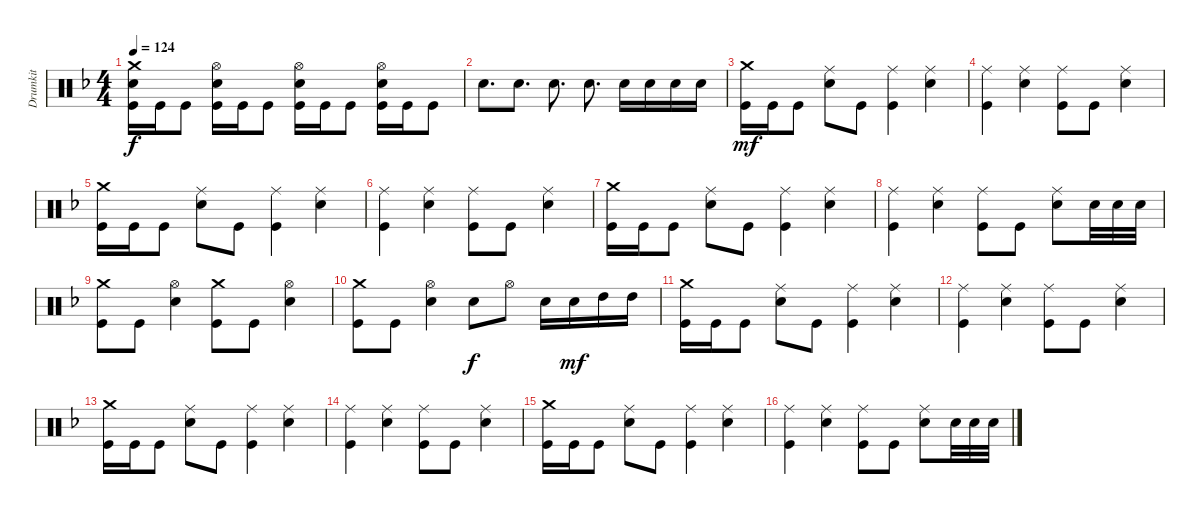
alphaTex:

\track ("Drumkit" "Drumkit") {instrument percussion}
\staff {score}
\articulation defaults
\ts (4 4)
\tempo 124
\clef neutral
\ks dminor
("Kick (hit)" "Snare (hit) 2" "Crash medium (hit)").16{dy f} "Kick (hit)".16 "Kick (hit)".8 ("Kick (hit)" "Snare (hit) 2" "Hi-Hat (open)").16 "Kick (hit)".16 "Kick (hit)".8 ("Kick (hit)" "Snare (hit) 2" "Hi-Hat (open)").16 "Kick (hit)".16 "Kick (hit)".8 ("Kick (hit)" "Snare (hit) 2" "Hi-Hat (open)").16 "Kick (hit)".16 "Kick (hit)".8 |
"Snare (hit) 2".8{d} "Snare (hit) 2".8{d} "Snare (hit) 2".8{d} "Snare (hit) 2".8{d} "Snare (hit) 2".16 "Snare (hit) 2".16 "Snare (hit) 2".16 "Snare (hit) 2".16 |
("Kick (hit)" "Crash medium (hit)").16{dy mf} "Kick (hit)".16 "Kick (hit)".8 ("Snare (hit) 2" "Ride (middle)").8 "Kick (hit)".8 ("Kick (hit)" "Ride (middle)").4 ("Snare (hit) 2" "Ride (middle)").4 |
("Kick (hit)" "Ride (middle)").4 ("Snare (hit) 2" "Ride (middle)").4 ("Kick (hit)" "Ride (middle)").8 "Kick (hit)".8 ("Snare (hit) 2" "Ride (middle)").4 |
("Kick (hit)" "Crash medium (hit)").16 "Kick (hit)".16 "Kick (hit)".8 ("Snare (hit) 2" "Ride (middle)").8 "Kick (hit)".8 ("Kick (hit)" "Ride (middle)").4 ("Snare (hit) 2" "Ride (middle)").4 |
("Kick (hit)" "Ride (middle)").4 ("Snare (hit) 2" "Ride (middle)").4 ("Kick (hit)" "Ride (middle)").8 "Kick (hit)".8 ("Snare (hit) 2" "Ride (middle)").4 |
("Kick (hit)" "Crash medium (hit)").16 "Kick (hit)".16 "Kick (hit)".8 ("Snare (hit) 2" "Ride (middle)").8 "Kick (hit)".8 ("Kick (hit)" "Ride (middle)").4 ("Snare (hit) 2" "Ride (middle)").4 |
("Kick (hit)" "Ride (middle)").4 ("Snare (hit) 2" "Ride (middle)").4 ("Kick (hit)" "Ride (middle)").8 "Kick (hit)".8 ("Snare (hit) 2" "Ride (middle)").8 "Snare (hit) 2".32 "Snare (hit) 2".32 "Snare (hit) 2".32 |
("Kick (hit)" "Crash medium (hit)").8 "Kick (hit)".8 ("Snare (hit) 2" "Hi-Hat (open)").4 ("Kick (hit)" "Crash medium (hit)").8 "Kick (hit)".8 ("Snare (hit) 2" "Hi-Hat (open)").4 |
("Kick (hit)" "Crash medium (hit)").8 "Kick (hit)".8 ("Snare (hit) 2" "Hi-Hat (open)").4 "Snare (hit) 2".8{dy f} "Hi-Hat (open)".8 "Snare (hit) 2".16 "Snare (hit) 2".16{dy mf} "High Tom (hit)".16 "High Tom (hit)".16 |
("Kick (hit)" "Crash medium (hit)").16 "Kick (hit)".16 "Kick (hit)".8 ("Snare (hit) 2" "Ride (middle)").8 "Kick (hit)".8 ("Kick (hit)" "Ride (middle)").4 ("Snare (hit) 2" "Ride (middle)").4 |
("Kick (hit)" "Ride (middle)").4 ("Snare (hit) 2" "Ride (middle)").4 ("Kick (hit)" "Ride (middle)").8 "Kick (hit)".8 ("Snare (hit) 2" "Ride (middle)").4 |
("Kick (hit)" "Crash medium (hit)").16 "Kick (hit)".16 "Kick (hit)".8 ("Snare (hit) 2" "Ride (middle)").8 "Kick (hit)".8 ("Kick (hit)" "Ride (middle)").4 ("Snare (hit) 2" "Ride (middle)").4 |
("Kick (hit)" "Ride (middle)").4 ("Snare (hit) 2" "Ride (middle)").4 ("Kick (hit)" "Ride (middle)").8 "Kick (hit)".8 ("Snare (hit) 2" "Ride (middle)").4 |
("Kick (hit)" "Crash medium (hit)").16 "Kick (hit)".16 "Kick (hit)".8 ("Snare (hit) 2" "Ride (middle)").8 "Kick (hit)".8 ("Kick (hit)" "Ride (middle)").4 ("Snare (hit) 2" "Ride (middle)").4 |
("Kick (hit)" "Ride (middle)").4 ("Snare (hit) 2" "Ride (middle)").4 ("Kick (hit)" "Ride (middle)").8 "Kick (hit)".8 ("Snare (hit) 2" "Ride (middle)").8 "Snare (hit) 2".32 "Snare (hit) 2".32 "Snare (hit) 2".32
